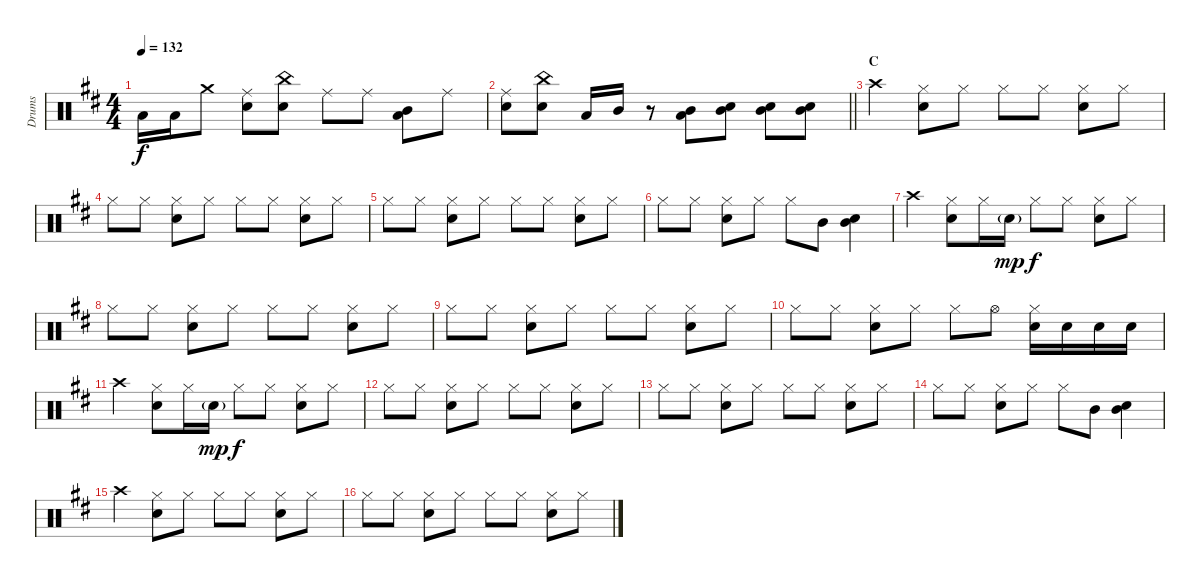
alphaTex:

\track ("Drums" "Drums") {instrument percussion}
\staff {score}
\articulation defaults
\ts (4 4)
\tempo 132
\clef neutral
\ks d "Low Tom (hit)".16{dy f} "Low Tom (hit)".16 "Crash medium (hit)".8
("Ride (middle)" "Snare (hit) 2").8 ("China (hit)" "Snare (hit) 2").8 "Ride (middle)".8 "Ride (middle)".8 ("Mid Tom (hit)" "Low Tom (hit)").8 "Ride (middle)".8 |
\barLineRight lightlight
("Ride (middle)" "Snare (hit) 2").8 ("China (hit)" "Snare (hit) 2").8 "Low Tom (hit)".16 "Mid Tom (hit)".16 r.8 ("Mid Tom (hit)" "Low Tom (hit)").8 ("Mid Tom (hit)" "Snare (hit) 2").8 ("Mid Tom (hit)" "Snare (hit) 2").8 ("Mid Tom (hit)" "Snare (hit) 2").8 |
\section ("" "C")
"Crash high (hit)".4 ("Hi-Hat (closed)" "Snare (hit) 2").8 "Hi-Hat (closed)".8 "Hi-Hat (closed)".8 "Hi-Hat (closed)".8 ("Hi-Hat (closed)" "Snare (hit) 2").8 "Hi-Hat (closed)".8 |
"Hi-Hat (closed)".8 "Hi-Hat (closed)".8 ("Hi-Hat (closed)" "Snare (hit) 2").8 "Hi-Hat (closed)".8 "Hi-Hat (closed)".8 "Hi-Hat (closed)".8 ("Hi-Hat (closed)" "Snare (hit) 2").8 "Hi-Hat (closed)".8 |
"Hi-Hat (closed)".8 "Hi-Hat (closed)".8 ("Hi-Hat (closed)" "Snare (hit) 2").8 "Hi-Hat (closed)".8 "Hi-Hat (closed)".8 "Hi-Hat (closed)".8 ("Hi-Hat (closed)" "Snare (hit) 2").8 "Hi-Hat (closed)".8 |
"Hi-Hat (closed)".8 "Hi-Hat (closed)".8 ("Hi-Hat (closed)" "Snare (hit) 2").8 "Hi-Hat (closed)".8 "Hi-Hat (closed)".8 "Mid Tom (hit)".8 ("Mid Tom (hit)" "Snare (hit) 2").4 |
"Crash high (hit)".4 ("Hi-Hat (closed)" "Snare (hit) 2").8 "Hi-Hat (closed)".16 "Snare (hit) 2"{g}.16{dy mp} "Hi-Hat (closed)".8{dy f} "Hi-Hat (closed)".8 ("Hi-Hat (closed)" "Snare (hit) 2").8 "Hi-Hat (closed)".8 |
"Hi-Hat (closed)".8 "Hi-Hat (closed)".8 ("Hi-Hat (closed)" "Snare (hit) 2").8 "Hi-Hat (closed)".8 "Hi-Hat (closed)".8 "Hi-Hat (closed)".8 ("Hi-Hat (closed)" "Snare (hit) 2").8 "Hi-Hat (closed)".8 |
"Hi-Hat (closed)".8 "Hi-Hat (closed)".8 ("Hi-Hat (closed)" "Snare (hit) 2").8 "Hi-Hat (closed)".8 "Hi-Hat (closed)".8 "Hi-Hat (closed)".8 ("Hi-Hat (closed)" "Snare (hit) 2").8 "Hi-Hat (closed)".8 |
"Hi-Hat (closed)".8 "Hi-Hat (closed)".8 ("Hi-Hat (closed)" "Snare (hit) 2").8 "Hi-Hat (closed)".8 "Hi-Hat (closed)".8 "Hi-Hat (open)".8 ("Hi-Hat (closed)" "Snare (hit) 2").16 "Snare (hit) 2".16 "Snare (hit) 2".16 "Snare (hit) 2".16 |
"Crash high (hit)".4 ("Hi-Hat (closed)" "Snare (hit) 2").8 "Hi-Hat (closed)".16 "Snare (hit) 2"{g}.16{dy mp} "Hi-Hat (closed)".8{dy f} "Hi-Hat (closed)".8 ("Hi-Hat (closed)" "Snare (hit) 2").8 "Hi-Hat (closed)".8 |
"Hi-Hat (closed)".8 "Hi-Hat (closed)".8 ("Hi-Hat (closed)" "Snare (hit) 2").8 "Hi-Hat (closed)".8 "Hi-Hat (closed)".8 "Hi-Hat (closed)".8 ("Hi-Hat (closed)" "Snare (hit) 2").8 "Hi-Hat (closed)".8 |
"Hi-Hat (closed)".8 "Hi-Hat (closed)".8 ("Hi-Hat (closed)" "Snare (hit) 2").8 "Hi-Hat (closed)".8 "Hi-Hat (closed)".8 "Hi-Hat (closed)".8 ("Hi-Hat (closed)" "Snare (hit) 2").8 "Hi-Hat (closed)".8 |
"Hi-Hat (closed)".8 "Hi-Hat (closed)".8 ("Hi-Hat (closed)" "Snare (hit) 2").8 "Hi-Hat (closed)".8 "Hi-Hat (closed)".8 "Mid Tom (hit)".8 ("Mid Tom (hit)" "Snare (hit) 2").4 |
"Crash high (hit)".4 ("Hi-Hat (closed)" "Snare (hit) 2").8 "Hi-Hat (closed)".8 "Hi-Hat (closed)".8 "Hi-Hat (closed)".8 ("Hi-Hat (closed)" "Snare (hit) 2").8 "Hi-Hat (closed)".8 |
"Hi-Hat (closed)".8 "Hi-Hat (closed)".8 ("Hi-Hat (closed)" "Snare (hit) 2").8 "Hi-Hat (closed)".8 "Hi-Hat (closed)".8 "Hi-Hat (closed)".8 ("Hi-Hat (closed)" "Snare (hit) 2").8 "Hi-Hat (closed)".8
